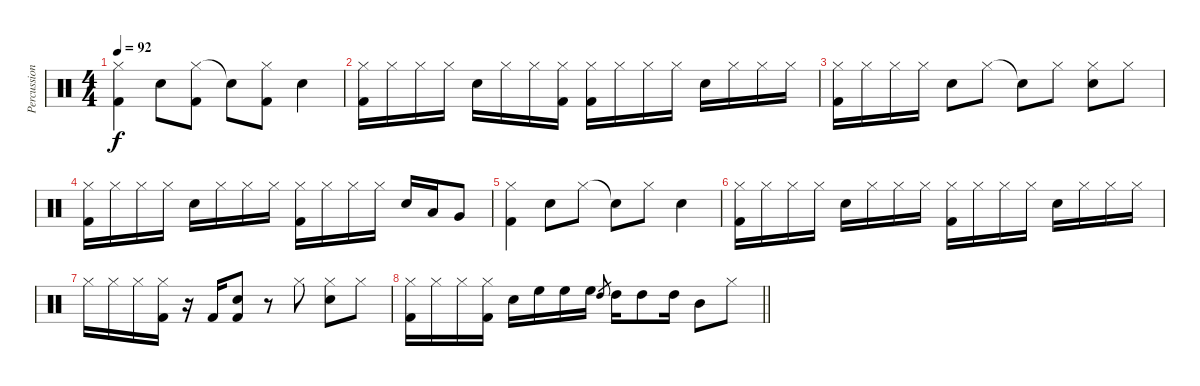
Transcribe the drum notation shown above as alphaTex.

\track ("Percussion" "Percussion") {instrument percussion}
\staff {score}
\articulation defaults
\ts (4 4)
\tempo 92
\clef neutral
\ks c
("Hi-Hat (closed)" "Kick (hit) 2").4{dy f} "Snare (hit) 2".8 ("Hi-Hat (closed)" "Kick (hit) 2").8 "Snare (hit)"{t}.8 ("Hi-Hat (closed)" "Kick (hit) 2").8 "Snare (hit) 2".4 |
("Hi-Hat (closed)" "Kick (hit) 2").16 "Hi-Hat (closed)".16 "Hi-Hat (closed)".16 "Hi-Hat (closed)".16 "Snare (hit) 2".16 "Hi-Hat (closed)".16 "Hi-Hat (closed)".16 ("Hi-Hat (closed)" "Kick (hit) 2").16 ("Hi-Hat (closed)" "Kick (hit) 2").16 "Hi-Hat (closed)".16 "Hi-Hat (closed)".16 "Hi-Hat (closed)".16 "Snare (hit) 2".16 "Hi-Hat (closed)".16 "Hi-Hat (closed)".16 "Hi-Hat (closed)".16 |
("Hi-Hat (closed)" "Kick (hit) 2").16 "Hi-Hat (closed)".16 "Hi-Hat (closed)".16 "Hi-Hat (closed)".16 "Snare (hit) 2".8 "Hi-Hat (closed)".8 "Snare (hit)"{t}.8 "Hi-Hat (closed)".8 ("Hi-Hat (closed)" "Snare (hit) 2").8 "Hi-Hat (closed)".8 |
("Hi-Hat (closed)" "Kick (hit) 2").16 "Hi-Hat (closed)".16 "Hi-Hat (closed)".16 "Hi-Hat (closed)".16 "Snare (hit) 2".16 "Hi-Hat (closed)".16 "Hi-Hat (closed)".16 "Hi-Hat (closed)".16 ("Hi-Hat (closed)" "Kick (hit) 2").16 "Hi-Hat (closed)".16 "Hi-Hat (closed)".16 "Hi-Hat (closed)".16 "Snare (hit) 2".16 "Low Tom (hit)".16 "Very Low Tom (hit)".8 |
("Hi-Hat (closed)" "Kick (hit) 2").4 "Snare (hit) 2".8 "Hi-Hat (closed)".8 "Snare (hit)"{t}.8 "Hi-Hat (closed)".8 "Snare (hit) 2".4 |
("Hi-Hat (closed)" "Kick (hit) 2").16 "Hi-Hat (closed)".16 "Hi-Hat (closed)".16 "Hi-Hat (closed)".16 "Snare (hit) 2".16 "Hi-Hat (closed)".16 "Hi-Hat (closed)".16 "Hi-Hat (closed)".16 ("Hi-Hat (closed)" "Kick (hit) 2").16 "Hi-Hat (closed)".16 "Hi-Hat (closed)".16 "Hi-Hat (closed)".16 "Snare (hit) 2".16 "Hi-Hat (closed)".16 "Hi-Hat (closed)".16 "Hi-Hat (closed)".16 |
"Hi-Hat (closed)".16 "Hi-Hat (closed)".16 "Hi-Hat (closed)".16 ("Hi-Hat (closed)" "Kick (hit) 2").16 r.16 "Kick (hit) 2".16 ("Snare (hit) 2" "Kick (hit) 2").8 r.8 "Hi-Hat (closed)".8 ("Hi-Hat (closed)" "Snare (hit) 2").8 "Hi-Hat (closed)".8 |
\barLineRight lightlight
("Hi-Hat (closed)" "Kick (hit) 2").16 "Hi-Hat (closed)".16 "Hi-Hat (closed)".16 ("Hi-Hat (closed)" "Kick (hit) 2").16 "Snare (hit) 2".16 "High Floor Tom (hit)".16 "High Floor Tom (hit)".16 "High Floor Tom (hit)".16 "High Tom (hit)".8{gr} "High Tom (hit)".16 "High Tom (hit)".8 "High Tom (hit)".16 "Mid Tom (hit)".8 "Hi-Hat (closed)".8
